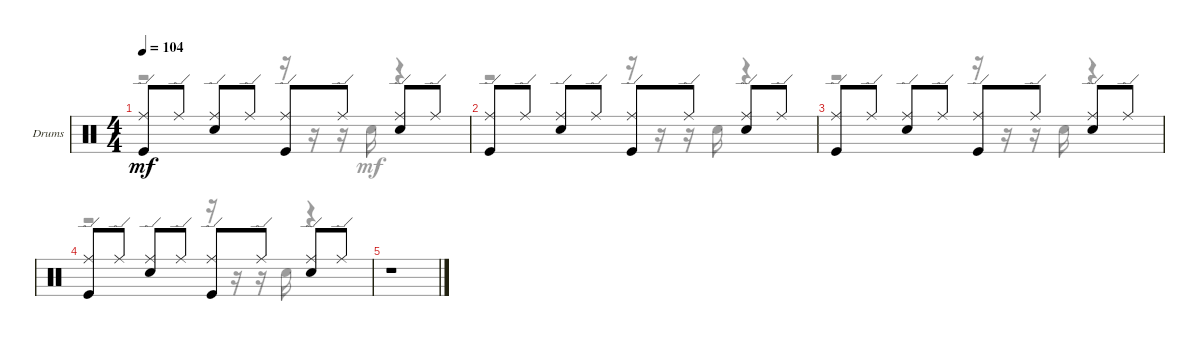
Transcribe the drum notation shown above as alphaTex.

\defaultSystemsLayout 4
\bracketExtendMode groupsimilarinstruments
\firstSystemTrackNameOrientation horizontal
\otherSystemsTrackNameOrientation horizontal
\track ("Drumkit" "Drums") {instrument percussion}
\staff {score}
\articulation defaults
\voice
\ts (4 4)
\tempo 104
\clef neutral
\ks c
("Kick (hit)" "Ride (edge)").8{dy mf} "Ride (edge)".8 ("Snare (hit) 2" "Ride (edge)").8 "Ride (edge)".8 ("Kick (hit)" "Ride (edge)").8 "Ride (edge)".8 ("Snare (hit) 2" "Ride (edge)").8 "Ride (edge)".8 |
("Kick (hit)" "Ride (edge)").8 "Ride (edge)".8 ("Snare (hit) 2" "Ride (edge)").8 "Ride (edge)".8 ("Kick (hit)" "Ride (edge)").8 "Ride (edge)".8 ("Snare (hit) 2" "Ride (edge)").8 "Ride (edge)".8 |
("Kick (hit)" "Ride (edge)").8 "Ride (edge)".8 ("Snare (hit) 2" "Ride (edge)").8 "Ride (edge)".8 ("Kick (hit)" "Ride (edge)").8 "Ride (edge)".8 ("Snare (hit) 2" "Ride (edge)").8 "Ride (edge)".8 |
("Kick (hit)" "Ride (edge)").8 "Ride (edge)".8 ("Snare (hit) 2" "Ride (edge)").8 "Ride (edge)".8 ("Kick (hit)" "Ride (edge)").8 "Ride (edge)".8 ("Snare (hit) 2" "Ride (edge)").8 "Ride (edge)".8 |
r.1
\voice
\clef neutral
\ottava regular
\simile none
\ks c
r.2{dy mf} r.16 r.16 r.16 "Snare (hit) 2".16 r.4 |
r.2 r.16 r.16 r.16 "Snare (hit) 2".16 r.4 |
r.2 r.16 r.16 r.16 "Snare (hit) 2".16 r.4 |
r.2 r.16 r.16 r.16 "Snare (hit) 2".16 r.4 |
